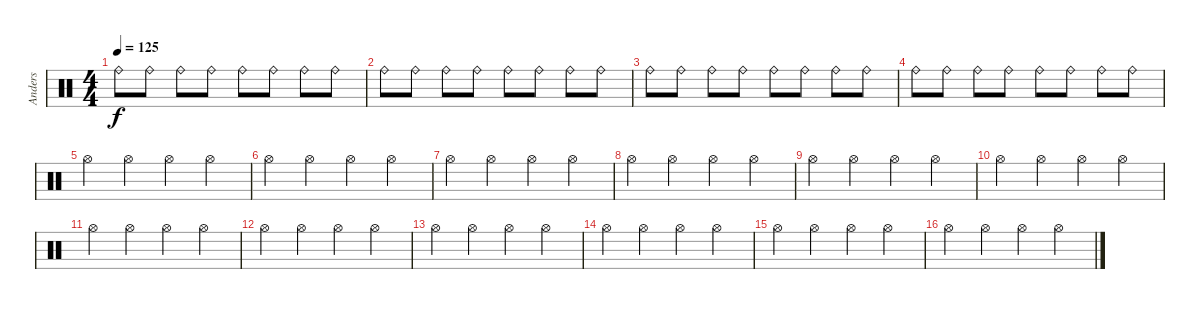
\track ("Anders" "Anders") {instrument percussion}
\staff {score}
\articulation defaults
\ts (4 4)
\tempo 125
\clef neutral
\ks c "Ride (bell)".8{dy f} "Ride (bell)".8 "Ride (bell)".8 "Ride (bell)".8 "Ride (bell)".8 "Ride (bell)".8 "Ride (bell)".8 "Ride (bell)".8
|
"Ride (bell)".8 "Ride (bell)".8 "Ride (bell)".8 "Ride (bell)".8 "Ride (bell)".8 "Ride (bell)".8 "Ride (bell)".8 "Ride (bell)".8 |
"Ride (bell)".8 "Ride (bell)".8 "Ride (bell)".8 "Ride (bell)".8 "Ride (bell)".8 "Ride (bell)".8 "Ride (bell)".8 "Ride (bell)".8 |
"Ride (bell)".8 "Ride (bell)".8 "Ride (bell)".8 "Ride (bell)".8 "Ride (bell)".8 "Ride (bell)".8 "Ride (bell)".8 "Ride (bell)".8 |
"Hi-Hat (open)".4 "Hi-Hat (open)".4 "Hi-Hat (open)".4 "Hi-Hat (open)".4 |
"Hi-Hat (open)".4 "Hi-Hat (open)".4 "Hi-Hat (open)".4 "Hi-Hat (open)".4 |
"Hi-Hat (open)".4 "Hi-Hat (open)".4 "Hi-Hat (open)".4 "Hi-Hat (open)".4 |
"Hi-Hat (open)".4 "Hi-Hat (open)".4 "Hi-Hat (open)".4 "Hi-Hat (open)".4 |
"Hi-Hat (open)".4 "Hi-Hat (open)".4 "Hi-Hat (open)".4 "Hi-Hat (open)".4 |
"Hi-Hat (open)".4 "Hi-Hat (open)".4 "Hi-Hat (open)".4 "Hi-Hat (open)".4 |
"Hi-Hat (open)".4 "Hi-Hat (open)".4 "Hi-Hat (open)".4 "Hi-Hat (open)".4 |
"Hi-Hat (open)".4 "Hi-Hat (open)".4 "Hi-Hat (open)".4 "Hi-Hat (open)".4 |
"Hi-Hat (open)".4 "Hi-Hat (open)".4 "Hi-Hat (open)".4 "Hi-Hat (open)".4 |
"Hi-Hat (open)".4 "Hi-Hat (open)".4 "Hi-Hat (open)".4 "Hi-Hat (open)".4 |
"Hi-Hat (open)".4 "Hi-Hat (open)".4 "Hi-Hat (open)".4 "Hi-Hat (open)".4 |
"Hi-Hat (open)".4 "Hi-Hat (open)".4 "Hi-Hat (open)".4 "Hi-Hat (open)".4
